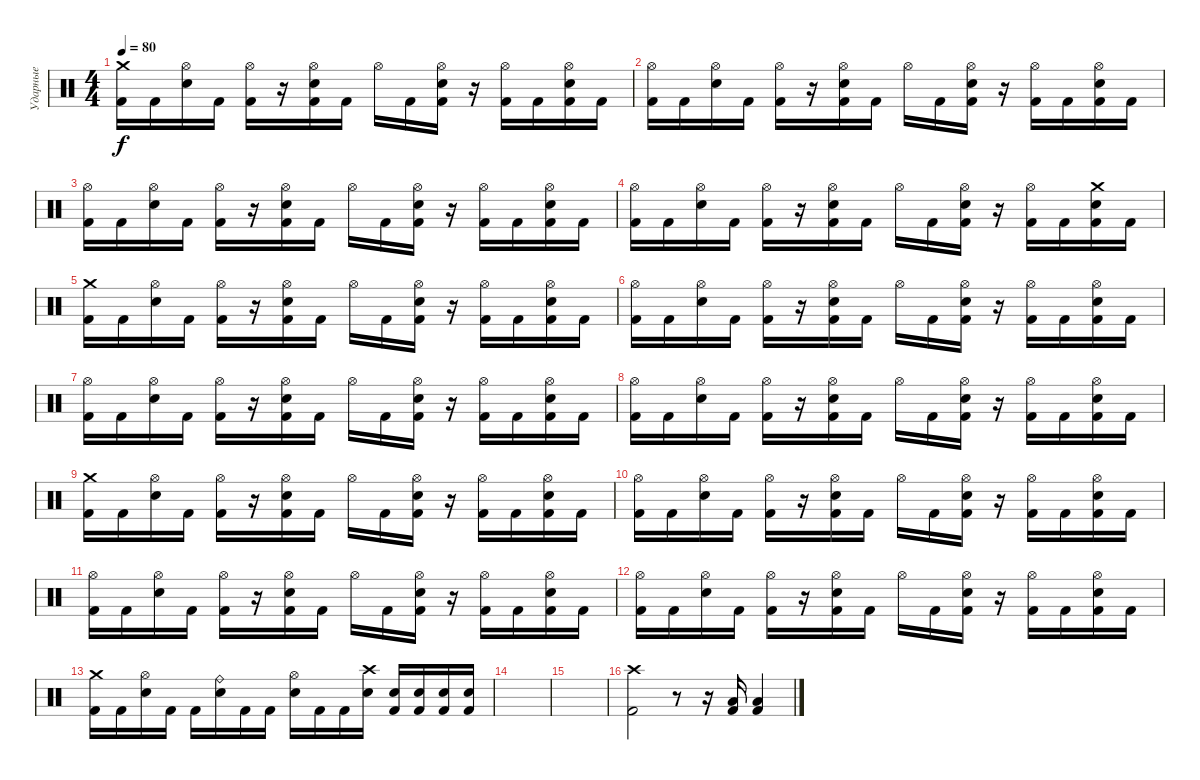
\track ("Ударные" "Ударные") {instrument percussion}
\staff {score}
\articulation defaults
\ts (4 4)
\tempo 80
\clef neutral
\ks c
("Kick (hit) 2" "Crash medium (hit)").16{dy f} "Kick (hit) 2".16 ("Electric Snare (hit)" "Hi-Hat (open)").16 "Kick (hit) 2".16 ("Kick (hit) 2" "Hi-Hat (open)").16 r.16 ("Kick (hit) 2" "Electric Snare (hit)" "Hi-Hat (open)").16 "Kick (hit) 2".16 "Hi-Hat (open)".16 "Kick (hit) 2".16 ("Kick (hit) 2" "Electric Snare (hit)" "Hi-Hat (open)").16 r.16 ("Kick (hit) 2" "Hi-Hat (open)").16 "Kick (hit) 2".16 ("Kick (hit) 2" "Electric Snare (hit)" "Hi-Hat (open)").16 "Kick (hit) 2".16 |
("Kick (hit) 2" "Hi-Hat (open)").16 "Kick (hit) 2".16 ("Electric Snare (hit)" "Hi-Hat (open)").16 "Kick (hit) 2".16 ("Kick (hit) 2" "Hi-Hat (open)").16 r.16 ("Kick (hit) 2" "Electric Snare (hit)" "Hi-Hat (open)").16 "Kick (hit) 2".16 "Hi-Hat (open)".16 "Kick (hit) 2".16 ("Kick (hit) 2" "Electric Snare (hit)" "Hi-Hat (open)").16 r.16 ("Kick (hit) 2" "Hi-Hat (open)").16 "Kick (hit) 2".16 ("Kick (hit) 2" "Electric Snare (hit)" "Hi-Hat (open)").16 "Kick (hit) 2".16 |
("Kick (hit) 2" "Hi-Hat (open)").16 "Kick (hit) 2".16 ("Electric Snare (hit)" "Hi-Hat (open)").16 "Kick (hit) 2".16 ("Kick (hit) 2" "Hi-Hat (open)").16 r.16 ("Kick (hit) 2" "Electric Snare (hit)" "Hi-Hat (open)").16 "Kick (hit) 2".16 "Hi-Hat (open)".16 "Kick (hit) 2".16 ("Kick (hit) 2" "Electric Snare (hit)" "Hi-Hat (open)").16 r.16 ("Kick (hit) 2" "Hi-Hat (open)").16 "Kick (hit) 2".16 ("Kick (hit) 2" "Electric Snare (hit)" "Hi-Hat (open)").16 "Kick (hit) 2".16 |
("Kick (hit) 2" "Hi-Hat (open)").16 "Kick (hit) 2".16 ("Electric Snare (hit)" "Hi-Hat (open)").16 "Kick (hit) 2".16 ("Kick (hit) 2" "Hi-Hat (open)").16 r.16 ("Kick (hit) 2" "Electric Snare (hit)" "Hi-Hat (open)").16 "Kick (hit) 2".16 "Hi-Hat (open)".16 "Kick (hit) 2".16 ("Kick (hit) 2" "Electric Snare (hit)" "Hi-Hat (open)").16 r.16 ("Kick (hit) 2" "Hi-Hat (open)").16 "Kick (hit) 2".16 ("Kick (hit) 2" "Electric Snare (hit)" "Crash medium (hit)").16 "Kick (hit) 2".16 |
("Kick (hit) 2" "Crash medium (hit)").16 "Kick (hit) 2".16 ("Electric Snare (hit)" "Hi-Hat (open)").16 "Kick (hit) 2".16 ("Kick (hit) 2" "Hi-Hat (open)").16 r.16 ("Kick (hit) 2" "Electric Snare (hit)" "Hi-Hat (open)").16 "Kick (hit) 2".16 "Hi-Hat (open)".16 "Kick (hit) 2".16 ("Kick (hit) 2" "Electric Snare (hit)" "Hi-Hat (open)").16 r.16 ("Kick (hit) 2" "Hi-Hat (open)").16 "Kick (hit) 2".16 ("Kick (hit) 2" "Electric Snare (hit)" "Hi-Hat (open)").16 "Kick (hit) 2".16 |
("Kick (hit) 2" "Hi-Hat (open)").16 "Kick (hit) 2".16 ("Electric Snare (hit)" "Hi-Hat (open)").16 "Kick (hit) 2".16 ("Kick (hit) 2" "Hi-Hat (open)").16 r.16 ("Kick (hit) 2" "Electric Snare (hit)" "Hi-Hat (open)").16 "Kick (hit) 2".16 "Hi-Hat (open)".16 "Kick (hit) 2".16 ("Kick (hit) 2" "Electric Snare (hit)" "Hi-Hat (open)").16 r.16 ("Kick (hit) 2" "Hi-Hat (open)").16 "Kick (hit) 2".16 ("Kick (hit) 2" "Electric Snare (hit)" "Hi-Hat (open)").16 "Kick (hit) 2".16 |
("Kick (hit) 2" "Hi-Hat (open)").16 "Kick (hit) 2".16 ("Electric Snare (hit)" "Hi-Hat (open)").16 "Kick (hit) 2".16 ("Kick (hit) 2" "Hi-Hat (open)").16 r.16 ("Kick (hit) 2" "Electric Snare (hit)" "Hi-Hat (open)").16 "Kick (hit) 2".16 "Hi-Hat (open)".16 "Kick (hit) 2".16 ("Kick (hit) 2" "Electric Snare (hit)" "Hi-Hat (open)").16 r.16 ("Kick (hit) 2" "Hi-Hat (open)").16 "Kick (hit) 2".16 ("Kick (hit) 2" "Electric Snare (hit)" "Hi-Hat (open)").16 "Kick (hit) 2".16 |
("Kick (hit) 2" "Hi-Hat (open)").16 "Kick (hit) 2".16 ("Electric Snare (hit)" "Hi-Hat (open)").16 "Kick (hit) 2".16 ("Kick (hit) 2" "Hi-Hat (open)").16 r.16 ("Kick (hit) 2" "Electric Snare (hit)" "Hi-Hat (open)").16 "Kick (hit) 2".16 "Hi-Hat (open)".16 "Kick (hit) 2".16 ("Kick (hit) 2" "Electric Snare (hit)" "Hi-Hat (open)").16 r.16 ("Kick (hit) 2" "Hi-Hat (open)").16 "Kick (hit) 2".16 ("Kick (hit) 2" "Electric Snare (hit)" "Hi-Hat (open)").16 "Kick (hit) 2".16 |
("Kick (hit) 2" "Crash medium (hit)").16 "Kick (hit) 2".16 ("Electric Snare (hit)" "Hi-Hat (open)").16 "Kick (hit) 2".16 ("Kick (hit) 2" "Hi-Hat (open)").16 r.16 ("Kick (hit) 2" "Electric Snare (hit)" "Hi-Hat (open)").16 "Kick (hit) 2".16 "Hi-Hat (open)".16 "Kick (hit) 2".16 ("Kick (hit) 2" "Electric Snare (hit)" "Hi-Hat (open)").16 r.16 ("Kick (hit) 2" "Hi-Hat (open)").16 "Kick (hit) 2".16 ("Kick (hit) 2" "Electric Snare (hit)" "Hi-Hat (open)").16 "Kick (hit) 2".16 |
("Kick (hit) 2" "Hi-Hat (open)").16 "Kick (hit) 2".16 ("Electric Snare (hit)" "Hi-Hat (open)").16 "Kick (hit) 2".16 ("Kick (hit) 2" "Hi-Hat (open)").16 r.16 ("Kick (hit) 2" "Electric Snare (hit)" "Hi-Hat (open)").16 "Kick (hit) 2".16 "Hi-Hat (open)".16 "Kick (hit) 2".16 ("Kick (hit) 2" "Electric Snare (hit)" "Hi-Hat (open)").16 r.16 ("Kick (hit) 2" "Hi-Hat (open)").16 "Kick (hit) 2".16 ("Kick (hit) 2" "Electric Snare (hit)" "Hi-Hat (open)").16 "Kick (hit) 2".16 |
("Kick (hit) 2" "Hi-Hat (open)").16 "Kick (hit) 2".16 ("Electric Snare (hit)" "Hi-Hat (open)").16 "Kick (hit) 2".16 ("Kick (hit) 2" "Hi-Hat (open)").16 r.16 ("Kick (hit) 2" "Electric Snare (hit)" "Hi-Hat (open)").16 "Kick (hit) 2".16 "Hi-Hat (open)".16 "Kick (hit) 2".16 ("Kick (hit) 2" "Electric Snare (hit)" "Hi-Hat (open)").16 r.16 ("Kick (hit) 2" "Hi-Hat (open)").16 "Kick (hit) 2".16 ("Kick (hit) 2" "Electric Snare (hit)" "Hi-Hat (open)").16 "Kick (hit) 2".16 |
("Kick (hit) 2" "Hi-Hat (open)").16 "Kick (hit) 2".16 ("Electric Snare (hit)" "Hi-Hat (open)").16 "Kick (hit) 2".16 ("Kick (hit) 2" "Hi-Hat (open)").16 r.16 ("Kick (hit) 2" "Electric Snare (hit)" "Hi-Hat (open)").16 "Kick (hit) 2".16 "Hi-Hat (open)".16 "Kick (hit) 2".16 ("Kick (hit) 2" "Electric Snare (hit)" "Hi-Hat (open)").16 r.16 ("Kick (hit) 2" "Hi-Hat (open)").16 "Kick (hit) 2".16 ("Kick (hit) 2" "Electric Snare (hit)" "Hi-Hat (open)").16 "Kick (hit) 2".16 |
("Kick (hit) 2" "Crash medium (hit)").16 "Kick (hit) 2".16 ("Electric Snare (hit)" "Hi-Hat (open)").16 "Kick (hit) 2".16 "Kick (hit) 2".16 ("Electric Snare (hit)" "Ride (bell)").16 "Kick (hit) 2".16 "Kick (hit) 2".16 ("Electric Snare (hit)" "Hi-Hat (open)").16 "Kick (hit) 2".16 "Kick (hit) 2".16 ("Electric Snare (hit)" "Crash high (hit)").16 ("Kick (hit) 2" "Electric Snare (hit)").16 ("Kick (hit) 2" "Electric Snare (hit)").16 ("Kick (hit) 2" "Electric Snare (hit)").16 ("Kick (hit) 2" "Electric Snare (hit)").16 |
|
|
("Kick (hit) 2" "Crash high (hit)").2 r.8 r.16 ("Low Floor Tom (hit)" "Kick (hit) 2").16 ("Low Floor Tom (hit)" "Kick (hit) 2").4
